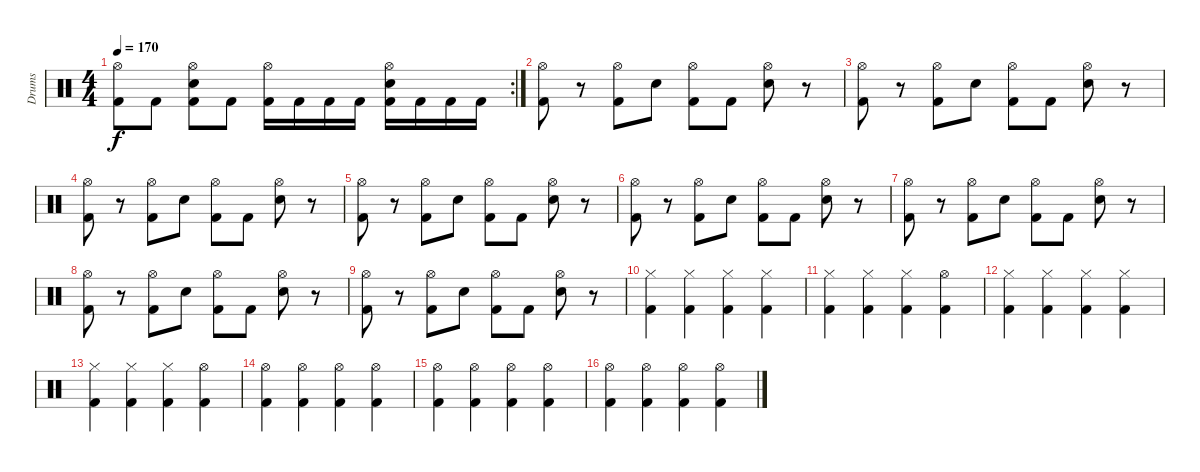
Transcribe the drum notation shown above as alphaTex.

\track ("Drums" "Drums") {instrument percussion}
\staff {score}
\articulation defaults
\rc 2
\ts (4 4)
\tempo 170
\clef neutral
\ks c
("Hi-Hat (open)" "Kick (hit) 2").8{dy f} "Kick (hit) 2".8 ("Hi-Hat (open)" "Snare (hit) 2" "Kick (hit) 2").8 "Kick (hit) 2".8 ("Hi-Hat (open)" "Kick (hit) 2").16 "Kick (hit) 2".16 "Kick (hit) 2".16 "Kick (hit) 2".16 ("Hi-Hat (open)" "Snare (hit) 2" "Kick (hit) 2").16 "Kick (hit) 2".16 "Kick (hit) 2".16 "Kick (hit) 2".16 |
("Hi-Hat (open)" "Kick (hit) 2").8 r.8 ("Hi-Hat (open)" "Kick (hit) 2").8 "Snare (hit) 2".8 ("Hi-Hat (open)" "Kick (hit) 2").8 "Kick (hit) 2".8 ("Hi-Hat (open)" "Snare (hit) 2").8 r.8 |
("Hi-Hat (open)" "Kick (hit) 2").8 r.8 ("Hi-Hat (open)" "Kick (hit) 2").8 "Snare (hit) 2".8 ("Hi-Hat (open)" "Kick (hit) 2").8 "Kick (hit) 2".8 ("Hi-Hat (open)" "Snare (hit) 2").8 r.8 |
("Hi-Hat (open)" "Kick (hit) 2").8 r.8 ("Hi-Hat (open)" "Kick (hit) 2").8 "Snare (hit) 2".8 ("Hi-Hat (open)" "Kick (hit) 2").8 "Kick (hit) 2".8 ("Hi-Hat (open)" "Snare (hit) 2").8 r.8 |
("Hi-Hat (open)" "Kick (hit) 2").8 r.8 ("Hi-Hat (open)" "Kick (hit) 2").8 "Snare (hit) 2".8 ("Hi-Hat (open)" "Kick (hit) 2").8 "Kick (hit) 2".8 ("Hi-Hat (open)" "Snare (hit) 2").8 r.8 |
("Hi-Hat (open)" "Kick (hit) 2").8 r.8 ("Hi-Hat (open)" "Kick (hit) 2").8 "Snare (hit) 2".8 ("Hi-Hat (open)" "Kick (hit) 2").8 "Kick (hit) 2".8 ("Hi-Hat (open)" "Snare (hit) 2").8 r.8 |
("Hi-Hat (open)" "Kick (hit) 2").8 r.8 ("Hi-Hat (open)" "Kick (hit) 2").8 "Snare (hit) 2".8 ("Hi-Hat (open)" "Kick (hit) 2").8 "Kick (hit) 2".8 ("Hi-Hat (open)" "Snare (hit) 2").8 r.8 |
("Hi-Hat (open)" "Kick (hit) 2").8 r.8 ("Hi-Hat (open)" "Kick (hit) 2").8 "Snare (hit) 2".8 ("Hi-Hat (open)" "Kick (hit) 2").8 "Kick (hit) 2".8 ("Hi-Hat (open)" "Snare (hit) 2").8 r.8 |
("Hi-Hat (open)" "Kick (hit) 2").8 r.8 ("Hi-Hat (open)" "Kick (hit) 2").8 "Snare (hit) 2".8 ("Hi-Hat (open)" "Kick (hit) 2").8 "Kick (hit) 2".8 ("Hi-Hat (open)" "Snare (hit) 2").8 r.8 |
("Hi-Hat (closed)" "Kick (hit) 2").4 ("Hi-Hat (closed)" "Kick (hit) 2").4 ("Hi-Hat (closed)" "Kick (hit) 2").4 ("Hi-Hat (closed)" "Kick (hit) 2").4 |
("Hi-Hat (closed)" "Kick (hit) 2").4 ("Hi-Hat (closed)" "Kick (hit) 2").4 ("Hi-Hat (closed)" "Kick (hit) 2").4 ("Hi-Hat (open)" "Kick (hit) 2").4 |
("Hi-Hat (closed)" "Kick (hit) 2").4 ("Hi-Hat (closed)" "Kick (hit) 2").4 ("Hi-Hat (closed)" "Kick (hit) 2").4 ("Hi-Hat (closed)" "Kick (hit) 2").4 |
("Hi-Hat (closed)" "Kick (hit) 2").4 ("Hi-Hat (closed)" "Kick (hit) 2").4 ("Hi-Hat (closed)" "Kick (hit) 2").4 ("Hi-Hat (open)" "Kick (hit) 2").4 |
("Hi-Hat (open)" "Kick (hit) 2").4 ("Hi-Hat (open)" "Kick (hit) 2").4 ("Hi-Hat (open)" "Kick (hit) 2").4 ("Hi-Hat (open)" "Kick (hit) 2").4 |
("Hi-Hat (open)" "Kick (hit) 2").4 ("Hi-Hat (open)" "Kick (hit) 2").4 ("Hi-Hat (open)" "Kick (hit) 2").4 ("Hi-Hat (open)" "Kick (hit) 2").4 |
("Hi-Hat (open)" "Kick (hit) 2").4 ("Hi-Hat (open)" "Kick (hit) 2").4 ("Hi-Hat (open)" "Kick (hit) 2").4 ("Hi-Hat (open)" "Kick (hit) 2").4
